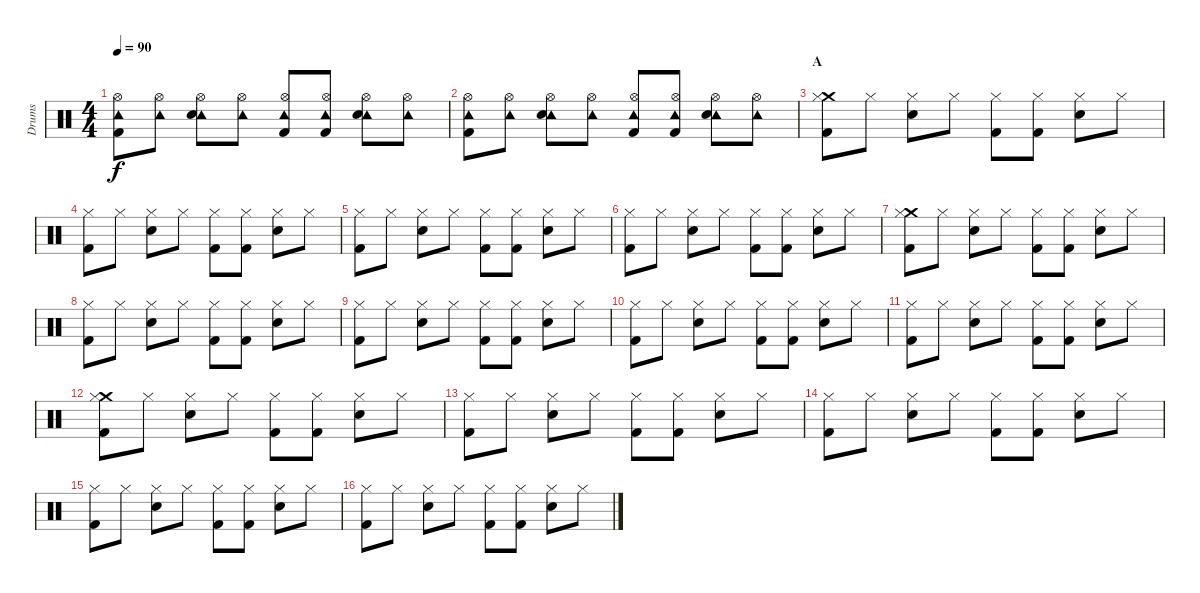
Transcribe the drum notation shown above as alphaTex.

\track ("Drums" "Drums") {instrument percussion}
\staff {score}
\articulation defaults
\ts (4 4)
\tempo 90
\clef neutral
\ks c
("Tambourine (hit)" "Hi-Hat (open)" "Kick (hit) 2").8{dy f} ("Tambourine (hit)" "Hi-Hat (open)").8 ("Tambourine (hit)" "Hi-Hat (open)" "Snare (hit) 2").8 ("Tambourine (hit)" "Hi-Hat (open)").8 ("Tambourine (hit)" "Hi-Hat (open)" "Kick (hit) 2").8 ("Tambourine (hit)" "Hi-Hat (open)" "Kick (hit) 2").8 ("Tambourine (hit)" "Hi-Hat (open)" "Snare (hit) 2").8 ("Tambourine (hit)" "Hi-Hat (open)").8 |
("Tambourine (hit)" "Hi-Hat (open)" "Kick (hit) 2").8 ("Tambourine (hit)" "Hi-Hat (open)").8 ("Tambourine (hit)" "Hi-Hat (open)" "Snare (hit) 2").8 ("Tambourine (hit)" "Hi-Hat (open)").8 ("Tambourine (hit)" "Hi-Hat (open)" "Kick (hit) 2").8 ("Tambourine (hit)" "Hi-Hat (open)" "Kick (hit) 2").8 ("Tambourine (hit)" "Hi-Hat (open)" "Snare (hit) 2").8 ("Tambourine (hit)" "Hi-Hat (open)").8 |
\section ("" "A")
("Crash medium (hit)" "Hi-Hat (closed)" "Kick (hit) 2").8 "Hi-Hat (closed)".8 ("Hi-Hat (closed)" "Snare (hit) 2").8 "Hi-Hat (closed)".8 ("Hi-Hat (closed)" "Kick (hit) 2").8 ("Hi-Hat (closed)" "Kick (hit) 2").8 ("Hi-Hat (closed)" "Snare (hit) 2").8 "Hi-Hat (closed)".8 |
("Hi-Hat (closed)" "Kick (hit) 2").8 "Hi-Hat (closed)".8 ("Hi-Hat (closed)" "Snare (hit) 2").8 "Hi-Hat (closed)".8 ("Hi-Hat (closed)" "Kick (hit) 2").8 ("Hi-Hat (closed)" "Kick (hit) 2").8 ("Hi-Hat (closed)" "Snare (hit) 2").8 "Hi-Hat (closed)".8 |
("Hi-Hat (closed)" "Kick (hit) 2").8 "Hi-Hat (closed)".8 ("Hi-Hat (closed)" "Snare (hit) 2").8 "Hi-Hat (closed)".8 ("Hi-Hat (closed)" "Kick (hit) 2").8 ("Hi-Hat (closed)" "Kick (hit) 2").8 ("Hi-Hat (closed)" "Snare (hit) 2").8 "Hi-Hat (closed)".8 |
("Hi-Hat (closed)" "Kick (hit) 2").8 "Hi-Hat (closed)".8 ("Hi-Hat (closed)" "Snare (hit) 2").8 "Hi-Hat (closed)".8 ("Hi-Hat (closed)" "Kick (hit) 2").8 ("Hi-Hat (closed)" "Kick (hit) 2").8 ("Hi-Hat (closed)" "Snare (hit) 2").8 "Hi-Hat (closed)".8 |
("Crash medium (hit)" "Hi-Hat (closed)" "Kick (hit) 2").8 "Hi-Hat (closed)".8 ("Hi-Hat (closed)" "Snare (hit) 2").8 "Hi-Hat (closed)".8 ("Hi-Hat (closed)" "Kick (hit) 2").8 ("Hi-Hat (closed)" "Kick (hit) 2").8 ("Hi-Hat (closed)" "Snare (hit) 2").8 "Hi-Hat (closed)".8 |
("Hi-Hat (closed)" "Kick (hit) 2").8 "Hi-Hat (closed)".8 ("Hi-Hat (closed)" "Snare (hit) 2").8 "Hi-Hat (closed)".8 ("Hi-Hat (closed)" "Kick (hit) 2").8 ("Hi-Hat (closed)" "Kick (hit) 2").8 ("Hi-Hat (closed)" "Snare (hit) 2").8 "Hi-Hat (closed)".8 |
("Hi-Hat (closed)" "Kick (hit) 2").8 "Hi-Hat (closed)".8 ("Hi-Hat (closed)" "Snare (hit) 2").8 "Hi-Hat (closed)".8 ("Hi-Hat (closed)" "Kick (hit) 2").8 ("Hi-Hat (closed)" "Kick (hit) 2").8 ("Hi-Hat (closed)" "Snare (hit) 2").8 "Hi-Hat (closed)".8 |
("Hi-Hat (closed)" "Kick (hit) 2").8 "Hi-Hat (closed)".8 ("Hi-Hat (closed)" "Snare (hit) 2").8 "Hi-Hat (closed)".8 ("Hi-Hat (closed)" "Kick (hit) 2").8 ("Hi-Hat (closed)" "Kick (hit) 2").8 ("Hi-Hat (closed)" "Snare (hit) 2").8 "Hi-Hat (closed)".8 |
("Hi-Hat (closed)" "Kick (hit) 2").8 "Hi-Hat (closed)".8 ("Hi-Hat (closed)" "Snare (hit) 2").8 "Hi-Hat (closed)".8 ("Hi-Hat (closed)" "Kick (hit) 2").8 ("Hi-Hat (closed)" "Kick (hit) 2").8 ("Hi-Hat (closed)" "Snare (hit) 2").8 "Hi-Hat (closed)".8 |
("Crash medium (hit)" "Hi-Hat (closed)" "Kick (hit) 2").8 "Hi-Hat (closed)".8 ("Hi-Hat (closed)" "Snare (hit) 2").8 "Hi-Hat (closed)".8 ("Hi-Hat (closed)" "Kick (hit) 2").8 ("Hi-Hat (closed)" "Kick (hit) 2").8 ("Hi-Hat (closed)" "Snare (hit) 2").8 "Hi-Hat (closed)".8 |
("Hi-Hat (closed)" "Kick (hit) 2").8 "Hi-Hat (closed)".8 ("Hi-Hat (closed)" "Snare (hit) 2").8 "Hi-Hat (closed)".8 ("Hi-Hat (closed)" "Kick (hit) 2").8 ("Hi-Hat (closed)" "Kick (hit) 2").8 ("Hi-Hat (closed)" "Snare (hit) 2").8 "Hi-Hat (closed)".8 |
("Hi-Hat (closed)" "Kick (hit) 2").8 "Hi-Hat (closed)".8 ("Hi-Hat (closed)" "Snare (hit) 2").8 "Hi-Hat (closed)".8 ("Hi-Hat (closed)" "Kick (hit) 2").8 ("Hi-Hat (closed)" "Kick (hit) 2").8 ("Hi-Hat (closed)" "Snare (hit) 2").8 "Hi-Hat (closed)".8 |
("Hi-Hat (closed)" "Kick (hit) 2").8 "Hi-Hat (closed)".8 ("Hi-Hat (closed)" "Snare (hit) 2").8 "Hi-Hat (closed)".8 ("Hi-Hat (closed)" "Kick (hit) 2").8 ("Hi-Hat (closed)" "Kick (hit) 2").8 ("Hi-Hat (closed)" "Snare (hit) 2").8 "Hi-Hat (closed)".8 |
("Hi-Hat (closed)" "Kick (hit) 2").8 "Hi-Hat (closed)".8 ("Hi-Hat (closed)" "Snare (hit) 2").8 "Hi-Hat (closed)".8 ("Hi-Hat (closed)" "Kick (hit) 2").8 ("Hi-Hat (closed)" "Kick (hit) 2").8 ("Hi-Hat (closed)" "Snare (hit) 2").8 "Hi-Hat (closed)".8
